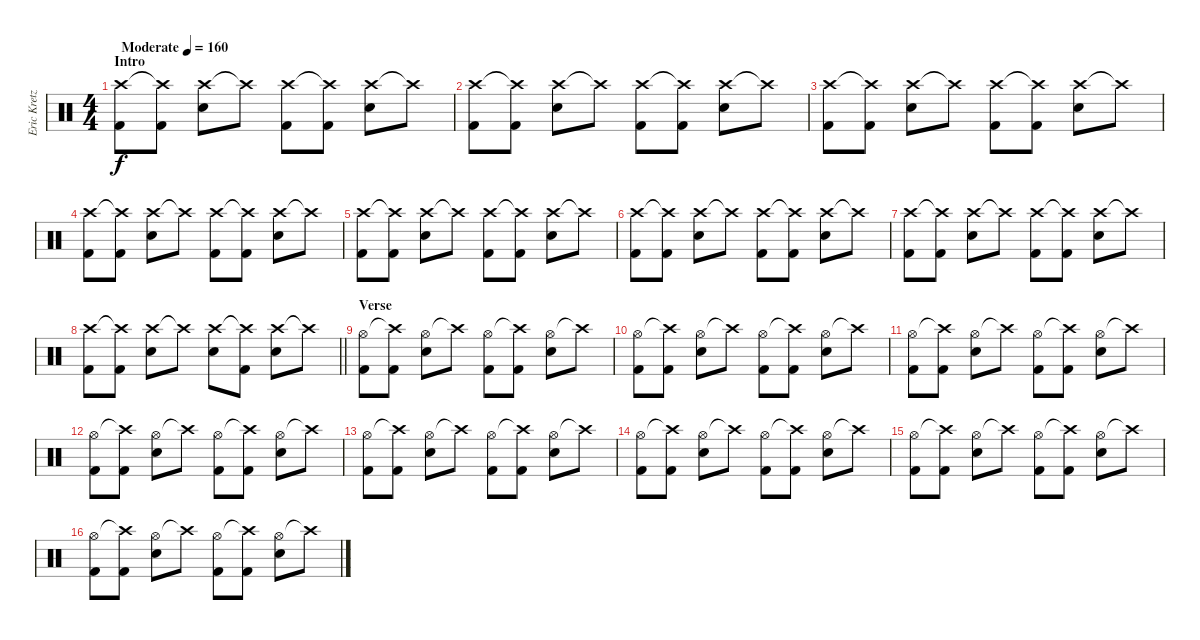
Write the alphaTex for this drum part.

\track ("Eric Kretz (Drums)" "Eric Kretz") {instrument percussion}
\staff {score}
\articulation defaults
\ts (4 4)
\section ("" "Intro")
\tempo (160 "Moderate")
\clef neutral
\ks c
("Crash high (hit)" "Kick (hit) 2").8{dy f} ("Crash high (hit)"{t} "Kick (hit) 2").8 ("Crash high (hit)" "Snare (hit) 2").8 "Crash high (hit)"{t}.8 ("Crash high (hit)" "Kick (hit) 2").8 ("Crash high (hit)"{t} "Kick (hit) 2").8 ("Crash high (hit)" "Snare (hit) 2").8 "Crash high (hit)"{t}.8 |
("Crash high (hit)" "Kick (hit) 2").8 ("Crash high (hit)"{t} "Kick (hit) 2").8 ("Crash high (hit)" "Snare (hit) 2").8 "Crash high (hit)"{t}.8 ("Crash high (hit)" "Kick (hit) 2").8 ("Crash high (hit)"{t} "Kick (hit) 2").8 ("Crash high (hit)" "Snare (hit) 2").8 "Crash high (hit)"{t}.8 |
("Crash high (hit)" "Kick (hit) 2").8 ("Crash high (hit)"{t} "Kick (hit) 2").8 ("Crash high (hit)" "Snare (hit) 2").8 "Crash high (hit)"{t}.8 ("Crash high (hit)" "Kick (hit) 2").8 ("Crash high (hit)"{t} "Kick (hit) 2").8 ("Crash high (hit)" "Snare (hit) 2").8 "Crash high (hit)"{t}.8 |
("Crash high (hit)" "Kick (hit) 2").8 ("Crash high (hit)"{t} "Kick (hit) 2").8 ("Crash high (hit)" "Snare (hit) 2").8 "Crash high (hit)"{t}.8 ("Crash high (hit)" "Kick (hit) 2").8 ("Crash high (hit)"{t} "Kick (hit) 2").8 ("Crash high (hit)" "Snare (hit) 2").8 "Crash high (hit)"{t}.8 |
("Crash high (hit)" "Kick (hit) 2").8 ("Crash high (hit)"{t} "Kick (hit) 2").8 ("Crash high (hit)" "Snare (hit) 2").8 "Crash high (hit)"{t}.8 ("Crash high (hit)" "Kick (hit) 2").8 ("Crash high (hit)"{t} "Kick (hit) 2").8 ("Crash high (hit)" "Snare (hit) 2").8 "Crash high (hit)"{t}.8 |
("Crash high (hit)" "Kick (hit) 2").8 ("Crash high (hit)"{t} "Kick (hit) 2").8 ("Crash high (hit)" "Snare (hit) 2").8 "Crash high (hit)"{t}.8 ("Crash high (hit)" "Kick (hit) 2").8 ("Crash high (hit)"{t} "Kick (hit) 2").8 ("Crash high (hit)" "Snare (hit) 2").8 "Crash high (hit)"{t}.8 |
("Crash high (hit)" "Kick (hit) 2").8 ("Crash high (hit)"{t} "Kick (hit) 2").8 ("Crash high (hit)" "Snare (hit) 2").8 "Crash high (hit)"{t}.8 ("Crash high (hit)" "Kick (hit) 2").8 ("Crash high (hit)"{t} "Kick (hit) 2").8 ("Crash high (hit)" "Snare (hit) 2").8 "Crash high (hit)"{t}.8 |
\barLineRight lightlight
("Crash high (hit)" "Kick (hit) 2").8 ("Crash high (hit)"{t} "Kick (hit) 2").8 ("Crash high (hit)" "Snare (hit) 2").8 "Crash high (hit)"{t}.8 ("Crash high (hit)" "Snare (hit) 2").8 ("Crash high (hit)"{t} "Kick (hit) 2").8 ("Crash high (hit)" "Snare (hit) 2").8 "Crash high (hit)"{t}.8 |
\section ("" "Verse")
("Hi-Hat (open)" "Kick (hit) 2").8 ("Crash high (hit)"{t} "Kick (hit) 2").8 ("Hi-Hat (open)" "Snare (hit) 2").8 "Crash high (hit)"{t}.8 ("Hi-Hat (open)" "Kick (hit) 2").8 ("Crash high (hit)"{t} "Kick (hit) 2").8 ("Hi-Hat (open)" "Snare (hit) 2").8 "Crash high (hit)"{t}.8 |
("Hi-Hat (open)" "Kick (hit) 2").8 ("Crash high (hit)"{t} "Kick (hit) 2").8 ("Hi-Hat (open)" "Snare (hit) 2").8 "Crash high (hit)"{t}.8 ("Hi-Hat (open)" "Kick (hit) 2").8 ("Crash high (hit)"{t} "Kick (hit) 2").8 ("Hi-Hat (open)" "Snare (hit) 2").8 "Crash high (hit)"{t}.8 |
("Hi-Hat (open)" "Kick (hit) 2").8 ("Crash high (hit)"{t} "Kick (hit) 2").8 ("Hi-Hat (open)" "Snare (hit) 2").8 "Crash high (hit)"{t}.8 ("Hi-Hat (open)" "Kick (hit) 2").8 ("Crash high (hit)"{t} "Kick (hit) 2").8 ("Hi-Hat (open)" "Snare (hit) 2").8 "Crash high (hit)"{t}.8 |
("Hi-Hat (open)" "Kick (hit) 2").8 ("Crash high (hit)"{t} "Kick (hit) 2").8 ("Hi-Hat (open)" "Snare (hit) 2").8 "Crash high (hit)"{t}.8 ("Hi-Hat (open)" "Kick (hit) 2").8 ("Crash high (hit)"{t} "Kick (hit) 2").8 ("Hi-Hat (open)" "Snare (hit) 2").8 "Crash high (hit)"{t}.8 |
("Hi-Hat (open)" "Kick (hit) 2").8 ("Crash high (hit)"{t} "Kick (hit) 2").8 ("Hi-Hat (open)" "Snare (hit) 2").8 "Crash high (hit)"{t}.8 ("Hi-Hat (open)" "Kick (hit) 2").8 ("Crash high (hit)"{t} "Kick (hit) 2").8 ("Hi-Hat (open)" "Snare (hit) 2").8 "Crash high (hit)"{t}.8 |
("Hi-Hat (open)" "Kick (hit) 2").8 ("Crash high (hit)"{t} "Kick (hit) 2").8 ("Hi-Hat (open)" "Snare (hit) 2").8 "Crash high (hit)"{t}.8 ("Hi-Hat (open)" "Kick (hit) 2").8 ("Crash high (hit)"{t} "Kick (hit) 2").8 ("Hi-Hat (open)" "Snare (hit) 2").8 "Crash high (hit)"{t}.8 |
("Hi-Hat (open)" "Kick (hit) 2").8 ("Crash high (hit)"{t} "Kick (hit) 2").8 ("Hi-Hat (open)" "Snare (hit) 2").8 "Crash high (hit)"{t}.8 ("Hi-Hat (open)" "Kick (hit) 2").8 ("Crash high (hit)"{t} "Kick (hit) 2").8 ("Hi-Hat (open)" "Snare (hit) 2").8 "Crash high (hit)"{t}.8 |
("Hi-Hat (open)" "Kick (hit) 2").8 ("Crash high (hit)"{t} "Kick (hit) 2").8 ("Hi-Hat (open)" "Snare (hit) 2").8 "Crash high (hit)"{t}.8 ("Hi-Hat (open)" "Kick (hit) 2").8 ("Crash high (hit)"{t} "Kick (hit) 2").8 ("Hi-Hat (open)" "Snare (hit) 2").8 "Crash high (hit)"{t}.8
